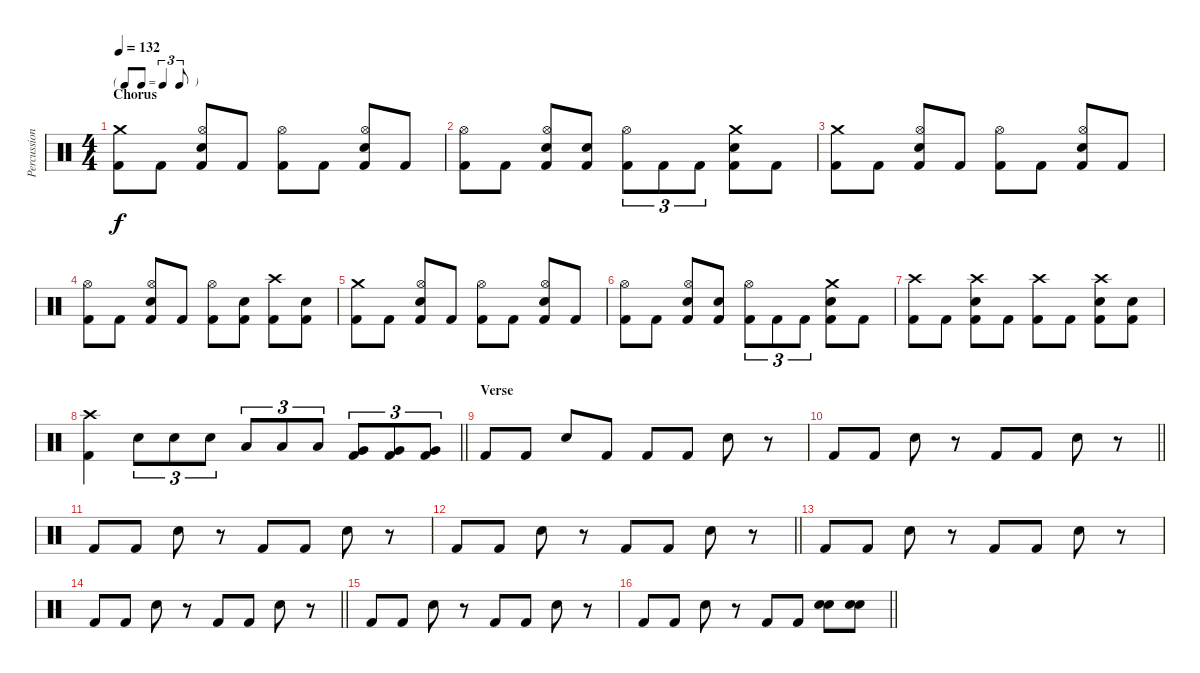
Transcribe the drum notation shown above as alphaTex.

\track ("Percussion" "Percussion") {instrument percussion}
\staff {score}
\articulation defaults
\ts (4 4)
\tf triplet8th
\section ("" "Chorus")
\tempo 132
\clef neutral
\ks c
("Crash medium (hit)" "Kick (hit) 2").8{dy f} "Kick (hit) 2".8 ("Hi-Hat (open)" "Electric Snare (hit)" "Kick (hit) 2").8 "Kick (hit) 2".8 ("Hi-Hat (open)" "Kick (hit) 2").8 "Kick (hit) 2".8 ("Hi-Hat (open)" "Electric Snare (hit)" "Kick (hit) 2").8 "Kick (hit) 2".8 |
("Hi-Hat (open)" "Kick (hit) 2").8 "Kick (hit) 2".8 ("Hi-Hat (open)" "Electric Snare (hit)" "Kick (hit) 2").8 ("Electric Snare (hit)" "Kick (hit) 2").8 ("Hi-Hat (open)" "Kick (hit) 2").8{tu (3 2)} "Kick (hit) 2".8{tu (3 2)} "Kick (hit) 2".8{tu (3 2)} ("Crash medium (hit)" "Electric Snare (hit)" "Kick (hit) 2").8 "Kick (hit) 2".8 |
("Crash medium (hit)" "Kick (hit) 2").8 "Kick (hit) 2".8 ("Hi-Hat (open)" "Electric Snare (hit)" "Kick (hit) 2").8 "Kick (hit) 2".8 ("Hi-Hat (open)" "Kick (hit) 2").8 "Kick (hit) 2".8 ("Hi-Hat (open)" "Electric Snare (hit)" "Kick (hit) 2").8 "Kick (hit) 2".8 |
("Hi-Hat (open)" "Kick (hit) 2").8 "Kick (hit) 2".8 ("Hi-Hat (open)" "Electric Snare (hit)" "Kick (hit) 2").8 "Kick (hit) 2".8 ("Hi-Hat (open)" "Kick (hit) 2").8 ("Electric Snare (hit)" "Kick (hit) 2").8 ("Crash high (hit)" "Kick (hit) 2").8 ("Electric Snare (hit)" "Kick (hit) 2").8 |
("Crash medium (hit)" "Kick (hit) 2").8 "Kick (hit) 2".8 ("Hi-Hat (open)" "Electric Snare (hit)" "Kick (hit) 2").8 "Kick (hit) 2".8 ("Hi-Hat (open)" "Kick (hit) 2").8 "Kick (hit) 2".8 ("Hi-Hat (open)" "Electric Snare (hit)" "Kick (hit) 2").8 "Kick (hit) 2".8 |
("Hi-Hat (open)" "Kick (hit) 2").8 "Kick (hit) 2".8 ("Hi-Hat (open)" "Electric Snare (hit)" "Kick (hit) 2").8 ("Electric Snare (hit)" "Kick (hit) 2").8 ("Hi-Hat (open)" "Kick (hit) 2").8{tu (3 2)} "Kick (hit) 2".8{tu (3 2)} "Kick (hit) 2".8{tu (3 2)} ("Crash medium (hit)" "Electric Snare (hit)" "Kick (hit) 2").8 "Kick (hit) 2".8 |
("Crash high (hit)" "Kick (hit) 2").8 "Kick (hit) 2".8 ("Crash high (hit)" "Electric Snare (hit)" "Kick (hit) 2").8 "Kick (hit) 2".8 ("Crash high (hit)" "Kick (hit) 2").8 "Kick (hit) 2".8 ("Crash high (hit)" "Electric Snare (hit)" "Kick (hit) 2").8 ("Electric Snare (hit)" "Kick (hit) 2").8 |
\barLineRight lightlight
("Crash high (hit)" "Kick (hit) 2").4 "Electric Snare (hit)".8{tu (3 2)} "Electric Snare (hit)".8{tu (3 2)} "Electric Snare (hit)".8{tu (3 2)} "Low Tom (hit)".8{tu (3 2)} "Low Tom (hit)".8{tu (3 2)} "Low Tom (hit)".8{tu (3 2)} ("Very Low Tom (hit)" "Kick (hit) 2").8{tu (3 2)} ("Very Low Tom (hit)" "Kick (hit) 2").8{tu (3 2)} ("Very Low Tom (hit)" "Kick (hit) 2").8{tu (3 2)} |
\section ("" "Verse")
"Kick (hit) 2".8 "Kick (hit) 2".8 "Electric Snare (hit)".8 "Kick (hit) 2".8 "Kick (hit) 2".8 "Kick (hit) 2".8 "Electric Snare (hit)".8 r.8 |
\barLineRight lightlight "Kick (hit) 2".8 "Kick (hit) 2".8 "Electric Snare (hit)".8
r.8 "Kick (hit) 2".8 "Kick (hit) 2".8 "Electric Snare (hit)".8 r.8 |
"Kick (hit) 2".8 "Kick (hit) 2".8 "Electric Snare (hit)".8 r.8 "Kick (hit) 2".8 "Kick (hit) 2".8 "Electric Snare (hit)".8 r.8 |
\barLineRight lightlight "Kick (hit) 2".8 "Kick (hit) 2".8 "Electric Snare (hit)".8
r.8 "Kick (hit) 2".8 "Kick (hit) 2".8 "Electric Snare (hit)".8 r.8 |
"Kick (hit) 2".8 "Kick (hit) 2".8 "Electric Snare (hit)".8 r.8 "Kick (hit) 2".8 "Kick (hit) 2".8 "Electric Snare (hit)".8 r.8 |
\barLineRight lightlight "Kick (hit) 2".8 "Kick (hit) 2".8 "Electric Snare (hit)".8
r.8 "Kick (hit) 2".8 "Kick (hit) 2".8 "Electric Snare (hit)".8 r.8 |
"Kick (hit) 2".8 "Kick (hit) 2".8 "Electric Snare (hit)".8 r.8 "Kick (hit) 2".8 "Kick (hit) 2".8 "Electric Snare (hit)".8 r.8 |
\barLineRight lightlight "Kick (hit) 2".8 "Kick (hit) 2".8 "Electric Snare (hit)".8
r.8 "Kick (hit) 2".8 "Kick (hit) 2".8 ("Electric Snare (hit)" "Electric Snare (hit)").8 ("Electric Snare (hit)" "Electric Snare (hit)").8
